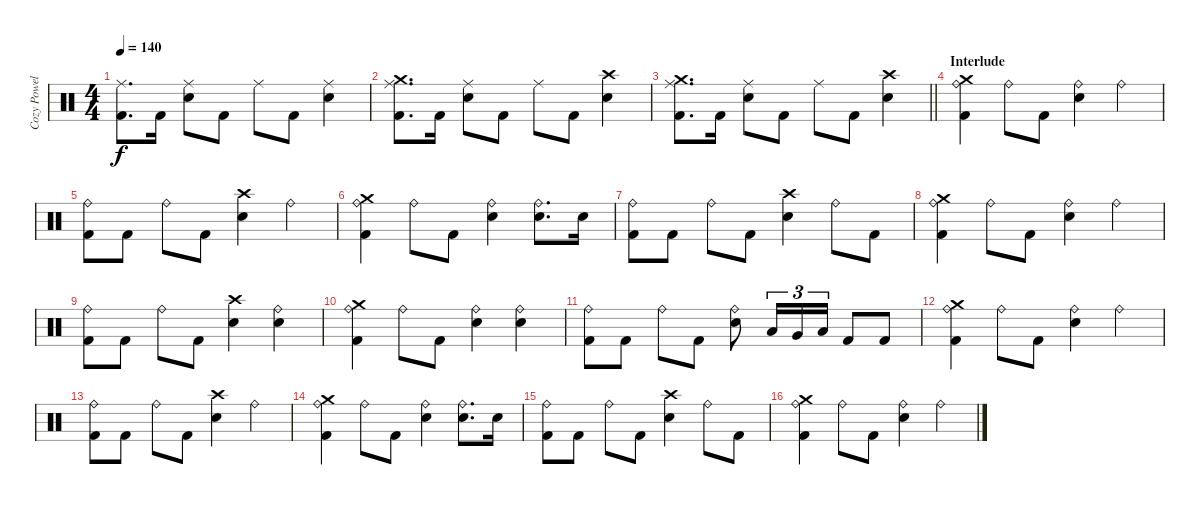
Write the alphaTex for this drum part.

\track ("Cozy Powell" "Cozy Powel") {instrument percussion}
\staff {score}
\articulation defaults
\ts (4 4)
\tempo 140
\clef neutral
\ks c
("Ride (middle)" "Kick (hit) 2").8{d dy f} "Kick (hit) 2".16 ("Ride (middle)" "Snare (hit) 2").8 "Kick (hit) 2".8 "Ride (middle)".8 "Kick (hit) 2".8 ("Ride (middle)" "Snare (hit) 2").4 |
("Crash medium (hit)" "Ride (middle)" "Kick (hit) 2").8{d} "Kick (hit) 2".16 ("Ride (middle)" "Snare (hit) 2").8 "Kick (hit) 2".8 "Ride (middle)".8 "Kick (hit) 2".8 ("Crash high (hit)" "Snare (hit) 2").4 |
\barLineRight lightlight
("Crash medium (hit)" "Ride (middle)" "Kick (hit) 2").8{d} "Kick (hit) 2".16 ("Ride (middle)" "Snare (hit) 2").8 "Kick (hit) 2".8 "Ride (middle)".8 "Kick (hit) 2".8 ("Crash high (hit)" "Snare (hit) 2").4 |
\section ("" "Interlude")
("Crash medium (hit)" "Ride (bell)" "Kick (hit) 2").4 "Ride (bell)".8 "Kick (hit) 2".8 ("Ride (bell)" "Snare (hit) 2").4 "Ride (bell)".4 |
("Ride (bell)" "Kick (hit) 2").8 "Kick (hit) 2".8 "Ride (bell)".8 "Kick (hit) 2".8 ("Crash high (hit)" "Snare (hit) 2").4 "Ride (bell)".4 |
("Crash medium (hit)" "Ride (bell)" "Kick (hit) 2").4 "Ride (bell)".8 "Kick (hit) 2".8 ("Ride (bell)" "Snare (hit) 2").4 ("Ride (bell)" "Snare (hit) 2").8{d} "Snare (hit) 2".16 |
("Ride (bell)" "Kick (hit) 2").8 "Kick (hit) 2".8 "Ride (bell)".8 "Kick (hit) 2".8 ("Crash high (hit)" "Snare (hit) 2").4 "Ride (bell)".8 "Kick (hit) 2".8 |
("Crash medium (hit)" "Ride (bell)" "Kick (hit) 2").4 "Ride (bell)".8 "Kick (hit) 2".8 ("Ride (bell)" "Snare (hit) 2").4 "Ride (bell)".4 |
("Ride (bell)" "Kick (hit) 2").8 "Kick (hit) 2".8 "Ride (bell)".8 "Kick (hit) 2".8 ("Crash high (hit)" "Snare (hit) 2").4 ("Ride (bell)" "Snare (hit) 2").4 |
("Crash medium (hit)" "Ride (bell)" "Kick (hit) 2").4 "Ride (bell)".8 "Kick (hit) 2".8 ("Ride (bell)" "Snare (hit) 2").4 ("Ride (bell)" "Snare (hit) 2").4 |
("Ride (bell)" "Kick (hit) 2").8 "Kick (hit) 2".8 "Ride (bell)".8 "Kick (hit) 2".8 ("Ride (bell)" "Snare (hit) 2").8 "Low Tom (hit)".16{tu (3 2)} "Very Low Tom (hit)".16{tu (3 2)} "Low Floor Tom (hit)".16{tu (3 2)} "Kick (hit) 2".8 "Kick (hit) 2".8 |
("Crash medium (hit)" "Ride (bell)" "Kick (hit) 2").4 "Ride (bell)".8 "Kick (hit) 2".8 ("Ride (bell)" "Snare (hit) 2").4 "Ride (bell)".4 |
("Ride (bell)" "Kick (hit) 2").8 "Kick (hit) 2".8 "Ride (bell)".8 "Kick (hit) 2".8 ("Crash high (hit)" "Snare (hit) 2").4 "Ride (bell)".4 |
("Crash medium (hit)" "Ride (bell)" "Kick (hit) 2").4 "Ride (bell)".8 "Kick (hit) 2".8 ("Ride (bell)" "Snare (hit) 2").4 ("Ride (bell)" "Snare (hit) 2").8{d} "Snare (hit) 2".16 |
("Ride (bell)" "Kick (hit) 2").8 "Kick (hit) 2".8 "Ride (bell)".8 "Kick (hit) 2".8 ("Crash high (hit)" "Snare (hit) 2").4 "Ride (bell)".8 "Kick (hit) 2".8 |
("Crash medium (hit)" "Ride (bell)" "Kick (hit) 2").4 "Ride (bell)".8 "Kick (hit) 2".8 ("Ride (bell)" "Snare (hit) 2").4 "Ride (bell)".4
